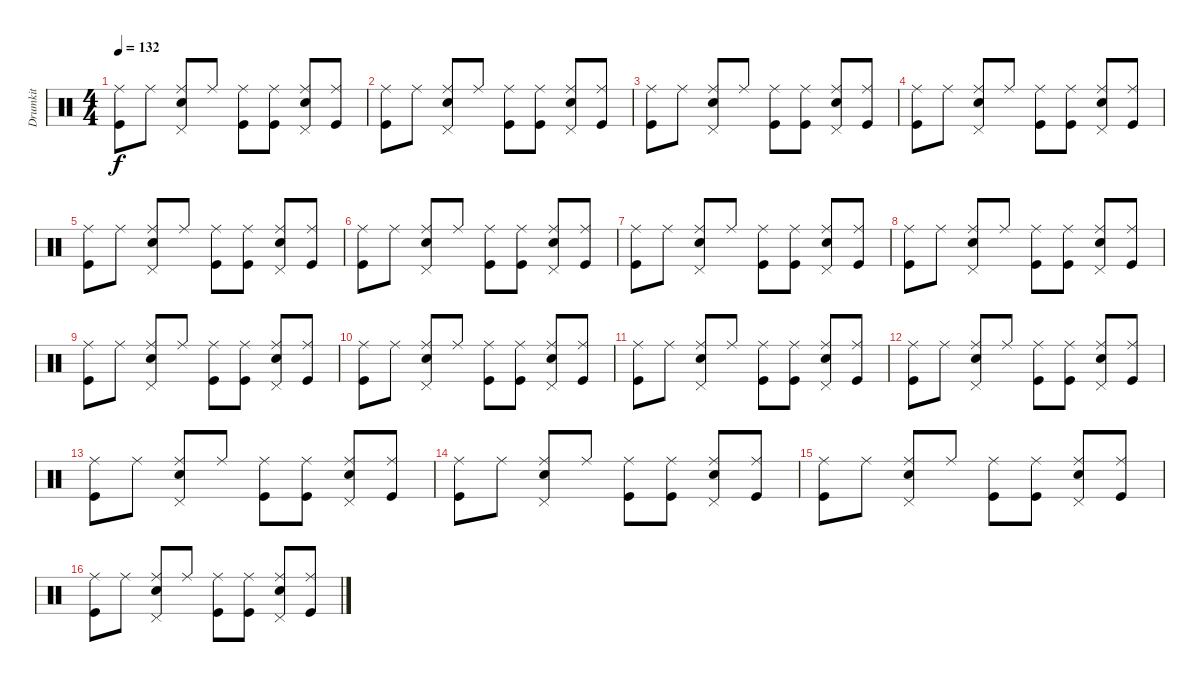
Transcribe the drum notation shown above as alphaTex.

\track ("Drumkit" "Drumkit") {instrument percussion}
\staff {score}
\articulation defaults
\ts (4 4)
\tempo 132
\clef neutral
\ks c
("Kick (hit)" "Ride (middle)").8{dy f} "Ride (middle)".8 ("Snare (hit) 2" "Pedal Hi-Hat (hit)" "Ride (middle)").8 "Ride (middle)".8 ("Kick (hit)" "Ride (middle)").8 ("Kick (hit)" "Ride (middle)").8 ("Snare (hit) 2" "Pedal Hi-Hat (hit)" "Ride (middle)").8 ("Kick (hit)" "Ride (middle)").8 |
("Kick (hit)" "Ride (middle)").8 "Ride (middle)".8 ("Snare (hit) 2" "Pedal Hi-Hat (hit)" "Ride (middle)").8 "Ride (middle)".8 ("Kick (hit)" "Ride (middle)").8 ("Kick (hit)" "Ride (middle)").8 ("Snare (hit) 2" "Pedal Hi-Hat (hit)" "Ride (middle)").8 ("Kick (hit)" "Ride (middle)").8 |
("Kick (hit)" "Ride (middle)").8 "Ride (middle)".8 ("Snare (hit) 2" "Pedal Hi-Hat (hit)" "Ride (middle)").8 "Ride (middle)".8 ("Kick (hit)" "Ride (middle)").8 ("Kick (hit)" "Ride (middle)").8 ("Snare (hit) 2" "Pedal Hi-Hat (hit)" "Ride (middle)").8 ("Kick (hit)" "Ride (middle)").8 |
("Kick (hit)" "Ride (middle)").8 "Ride (middle)".8 ("Snare (hit) 2" "Pedal Hi-Hat (hit)" "Ride (middle)").8 "Ride (middle)".8 ("Kick (hit)" "Ride (middle)").8 ("Kick (hit)" "Ride (middle)").8 ("Snare (hit) 2" "Pedal Hi-Hat (hit)" "Ride (middle)").8 ("Kick (hit)" "Ride (middle)").8 |
("Kick (hit)" "Ride (middle)").8 "Ride (middle)".8 ("Snare (hit) 2" "Pedal Hi-Hat (hit)" "Ride (middle)").8 "Ride (middle)".8 ("Kick (hit)" "Ride (middle)").8 ("Kick (hit)" "Ride (middle)").8 ("Snare (hit) 2" "Pedal Hi-Hat (hit)" "Ride (middle)").8 ("Kick (hit)" "Ride (middle)").8 |
("Kick (hit)" "Ride (middle)").8 "Ride (middle)".8 ("Snare (hit) 2" "Pedal Hi-Hat (hit)" "Ride (middle)").8 "Ride (middle)".8 ("Kick (hit)" "Ride (middle)").8 ("Kick (hit)" "Ride (middle)").8 ("Snare (hit) 2" "Pedal Hi-Hat (hit)" "Ride (middle)").8 ("Kick (hit)" "Ride (middle)").8 |
("Kick (hit)" "Ride (middle)").8 "Ride (middle)".8 ("Snare (hit) 2" "Pedal Hi-Hat (hit)" "Ride (middle)").8 "Ride (middle)".8 ("Kick (hit)" "Ride (middle)").8 ("Kick (hit)" "Ride (middle)").8 ("Snare (hit) 2" "Pedal Hi-Hat (hit)" "Ride (middle)").8 ("Kick (hit)" "Ride (middle)").8 |
("Kick (hit)" "Ride (middle)").8 "Ride (middle)".8 ("Snare (hit) 2" "Pedal Hi-Hat (hit)" "Ride (middle)").8 "Ride (middle)".8 ("Kick (hit)" "Ride (middle)").8 ("Kick (hit)" "Ride (middle)").8 ("Snare (hit) 2" "Pedal Hi-Hat (hit)" "Ride (middle)").8 ("Kick (hit)" "Ride (middle)").8 |
("Kick (hit)" "Ride (middle)").8 "Ride (middle)".8 ("Snare (hit) 2" "Pedal Hi-Hat (hit)" "Ride (middle)").8 "Ride (middle)".8 ("Kick (hit)" "Ride (middle)").8 ("Kick (hit)" "Ride (middle)").8 ("Snare (hit) 2" "Pedal Hi-Hat (hit)" "Ride (middle)").8 ("Kick (hit)" "Ride (middle)").8 |
("Kick (hit)" "Ride (middle)").8 "Ride (middle)".8 ("Snare (hit) 2" "Pedal Hi-Hat (hit)" "Ride (middle)").8 "Ride (middle)".8 ("Kick (hit)" "Ride (middle)").8 ("Kick (hit)" "Ride (middle)").8 ("Snare (hit) 2" "Pedal Hi-Hat (hit)" "Ride (middle)").8 ("Kick (hit)" "Ride (middle)").8 |
("Kick (hit)" "Ride (middle)").8 "Ride (middle)".8 ("Snare (hit) 2" "Pedal Hi-Hat (hit)" "Ride (middle)").8 "Ride (middle)".8 ("Kick (hit)" "Ride (middle)").8 ("Kick (hit)" "Ride (middle)").8 ("Snare (hit) 2" "Pedal Hi-Hat (hit)" "Ride (middle)").8 ("Kick (hit)" "Ride (middle)").8 |
("Kick (hit)" "Ride (middle)").8 "Ride (middle)".8 ("Snare (hit) 2" "Pedal Hi-Hat (hit)" "Ride (middle)").8 "Ride (middle)".8 ("Kick (hit)" "Ride (middle)").8 ("Kick (hit)" "Ride (middle)").8 ("Snare (hit) 2" "Pedal Hi-Hat (hit)" "Ride (middle)").8 ("Kick (hit)" "Ride (middle)").8 |
("Kick (hit)" "Ride (middle)").8 "Ride (middle)".8 ("Snare (hit) 2" "Pedal Hi-Hat (hit)" "Ride (middle)").8 "Ride (middle)".8 ("Kick (hit)" "Ride (middle)").8 ("Kick (hit)" "Ride (middle)").8 ("Snare (hit) 2" "Pedal Hi-Hat (hit)" "Ride (middle)").8 ("Kick (hit)" "Ride (middle)").8 |
("Kick (hit)" "Ride (middle)").8 "Ride (middle)".8 ("Snare (hit) 2" "Pedal Hi-Hat (hit)" "Ride (middle)").8 "Ride (middle)".8 ("Kick (hit)" "Ride (middle)").8 ("Kick (hit)" "Ride (middle)").8 ("Snare (hit) 2" "Pedal Hi-Hat (hit)" "Ride (middle)").8 ("Kick (hit)" "Ride (middle)").8 |
("Kick (hit)" "Ride (middle)").8 "Ride (middle)".8 ("Snare (hit) 2" "Pedal Hi-Hat (hit)" "Ride (middle)").8 "Ride (middle)".8 ("Kick (hit)" "Ride (middle)").8 ("Kick (hit)" "Ride (middle)").8 ("Snare (hit) 2" "Pedal Hi-Hat (hit)" "Ride (middle)").8 ("Kick (hit)" "Ride (middle)").8 |
("Kick (hit)" "Ride (middle)").8 "Ride (middle)".8 ("Snare (hit) 2" "Pedal Hi-Hat (hit)" "Ride (middle)").8 "Ride (middle)".8 ("Kick (hit)" "Ride (middle)").8 ("Kick (hit)" "Ride (middle)").8 ("Snare (hit) 2" "Pedal Hi-Hat (hit)" "Ride (middle)").8 ("Kick (hit)" "Ride (middle)").8
